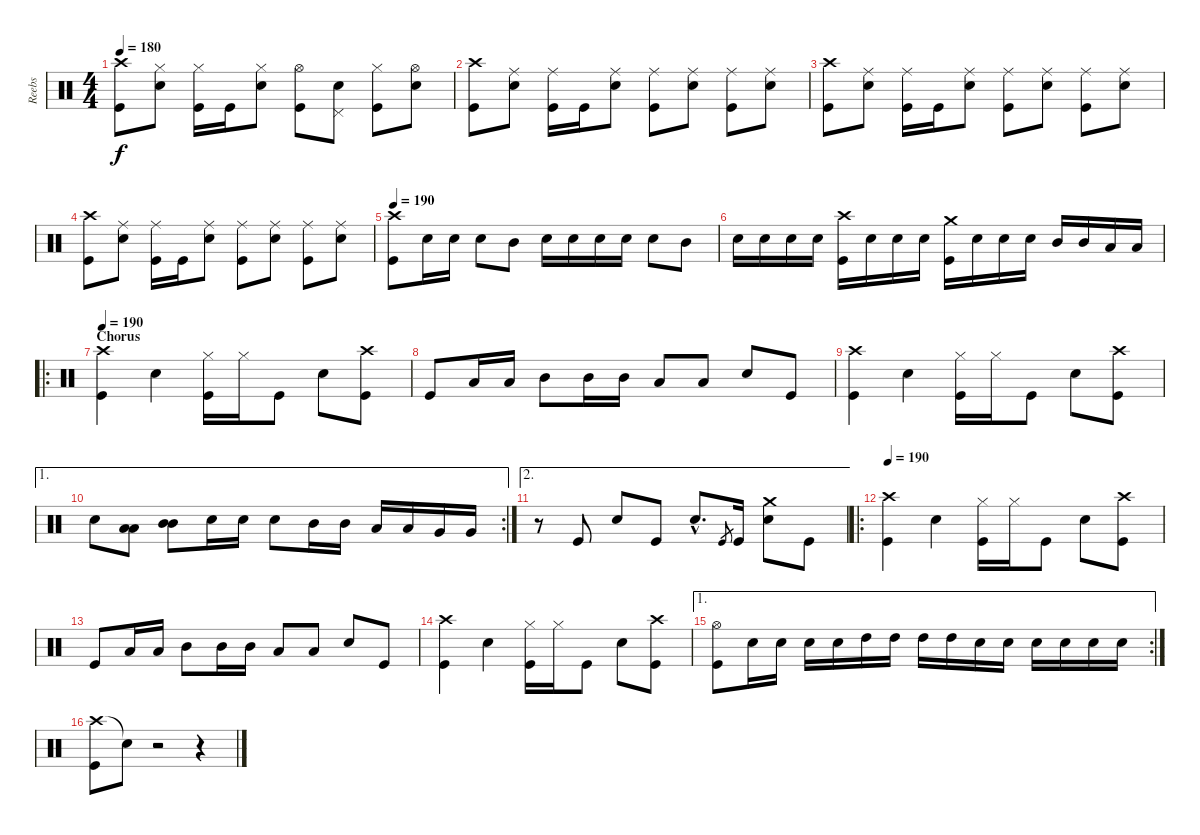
\track ("Reebs" "Reebs") {instrument percussion}
\staff {score}
\articulation defaults
\ts (4 4)
\tempo 180
\clef neutral
\ks c
("Crash high (hit)" "Kick (hit)").8{dy f} ("Hi-Hat (closed)" "Electric Snare (hit)").8 ("Hi-Hat (closed)" "Kick (hit)").16 "Kick (hit)".16 ("Hi-Hat (closed)" "Electric Snare (hit)").8 ("Hi-Hat (open)" "Kick (hit)").8 ("Pedal Hi-Hat (hit)" "Electric Snare (hit)").8 ("Hi-Hat (closed)" "Kick (hit)").8 ("Hi-Hat (open)" "Electric Snare (hit)").8 |
("Crash high (hit)" "Kick (hit)").8 ("Ride (middle)" "Electric Snare (hit)").8 ("Ride (middle)" "Kick (hit)").16 "Kick (hit)".16 ("Ride (middle)" "Electric Snare (hit)").8 ("Ride (middle)" "Kick (hit)").8 ("Ride (middle)" "Electric Snare (hit)").8 ("Ride (middle)" "Kick (hit)").8 ("Ride (middle)" "Electric Snare (hit)").8 |
("Crash high (hit)" "Kick (hit)").8 ("Ride (middle)" "Electric Snare (hit)").8 ("Ride (middle)" "Kick (hit)").16 "Kick (hit)".16 ("Ride (middle)" "Electric Snare (hit)").8 ("Ride (middle)" "Kick (hit)").8 ("Ride (middle)" "Electric Snare (hit)").8 ("Ride (middle)" "Kick (hit)").8 ("Ride (middle)" "Electric Snare (hit)").8 |
("Crash high (hit)" "Kick (hit)").8 ("Ride (middle)" "Electric Snare (hit)").8 ("Ride (middle)" "Kick (hit)").16 "Kick (hit)".16 ("Ride (middle)" "Electric Snare (hit)").8 ("Ride (middle)" "Kick (hit)").8 ("Ride (middle)" "Electric Snare (hit)").8 ("Ride (middle)" "Kick (hit)").8 ("Ride (middle)" "Electric Snare (hit)").8 |
\tempo 190
("Crash high (hit)" "Kick (hit)").8 "Electric Snare (hit)".16 "Electric Snare (hit)".16 "Electric Snare (hit)".8 "Mid Tom (hit)".8 "Electric Snare (hit)".16 "Electric Snare (hit)".16 "Electric Snare (hit)".16 "Electric Snare (hit)".16 "Electric Snare (hit)".8 "Mid Tom (hit)".8 |
"Electric Snare (hit)".16 "Electric Snare (hit)".16 "Electric Snare (hit)".16 "Electric Snare (hit)".16 ("Crash high (hit)" "Kick (hit)").16 "Electric Snare (hit)".16 "Electric Snare (hit)".16 "Electric Snare (hit)".16 ("Crash medium (hit)" "Kick (hit)").16 "Electric Snare (hit)".16 "Electric Snare (hit)".16 "Electric Snare (hit)".16 "Mid Tom (hit)".16 "Mid Tom (hit)".16 "Low Tom (hit)".16 "Low Tom (hit)".16 |
\ro
\section ("" "Chorus")
\tempo 190
("Crash high (hit)" "Kick (hit)").4 "Electric Snare (hit)".4 ("Hi-Hat (closed)" "Kick (hit)").16 "Hi-Hat (closed)".16 "Kick (hit)".8 "Electric Snare (hit)".8 ("Crash high (hit)" "Kick (hit)").8 |
"Kick (hit)".8 "Low Tom (hit)".16 "Low Tom (hit)".16 "Mid Tom (hit)".8 "Mid Tom (hit)".16 "Mid Tom (hit)".16 "Low Floor Tom (hit)".8 "Low Floor Tom (hit)".8 "Electric Snare (hit)".8 "Kick (hit)".8 |
("Crash high (hit)" "Kick (hit)").4 "Electric Snare (hit)".4 ("Hi-Hat (closed)" "Kick (hit)").16 "Hi-Hat (closed)".16 "Kick (hit)".8 "Electric Snare (hit)".8 ("Crash high (hit)" "Kick (hit)").8 |
\ae 1
\rc 2 "Electric Snare (hit)".8
("Low Tom (hit)" "Low Tom (hit)").8 ("Mid Tom (hit)" "Mid Tom (hit)").8 "Electric Snare (hit)".16 "Electric Snare (hit)".16 "Electric Snare (hit)".8 "Mid Tom (hit)".16 "Mid Tom (hit)".16 "Low Tom (hit)".16 "Low Tom (hit)".16 "Very Low Tom (hit)".16 "Very Low Tom (hit)".16 |
\ae 2
r.8 "Kick (hit)".8 "Electric Snare (hit)".8 "Kick (hit)".8 "Electric Snare (hit)"{hac}.8{d} "Kick (hit)".8{gr} "Kick (hit)".16 ("Crash medium (hit)" "Electric Snare (hit)").8 "Kick (hit)".8 |
\ro
\tempo 190
("Crash high (hit)" "Kick (hit)").4 "Electric Snare (hit)".4 ("Hi-Hat (closed)" "Kick (hit)").16 "Hi-Hat (closed)".16 "Kick (hit)".8 "Electric Snare (hit)".8 ("Crash high (hit)" "Kick (hit)").8 |
"Kick (hit)".8 "Low Tom (hit)".16 "Low Tom (hit)".16 "Mid Tom (hit)".8 "Mid Tom (hit)".16 "Mid Tom (hit)".16 "Low Floor Tom (hit)".8 "Low Floor Tom (hit)".8 "Electric Snare (hit)".8 "Kick (hit)".8 |
("Crash high (hit)" "Kick (hit)").4 "Electric Snare (hit)".4 ("Hi-Hat (closed)" "Kick (hit)").16 "Hi-Hat (closed)".16 "Kick (hit)".8 "Electric Snare (hit)".8 ("Crash high (hit)" "Kick (hit)").8 |
\ae 1
\rc 2
("Hi-Hat (open)" "Kick (hit)").8 "Electric Snare (hit)".16 "Electric Snare (hit)".16 "Electric Snare (hit)".16 "Electric Snare (hit)".16 "High Tom (hit)".16 "High Tom (hit)".16 "High Tom (hit)".16 "High Tom (hit)".16 "Electric Snare (hit)".16 "Electric Snare (hit)".16 "Electric Snare (hit)".16 "Electric Snare (hit)".16 "Electric Snare (hit)".16 "Electric Snare (hit)".16 |
("Crash high (hit)" "Kick (hit)").8 "Snare (hit)"{t}.8 r.2 r.4
